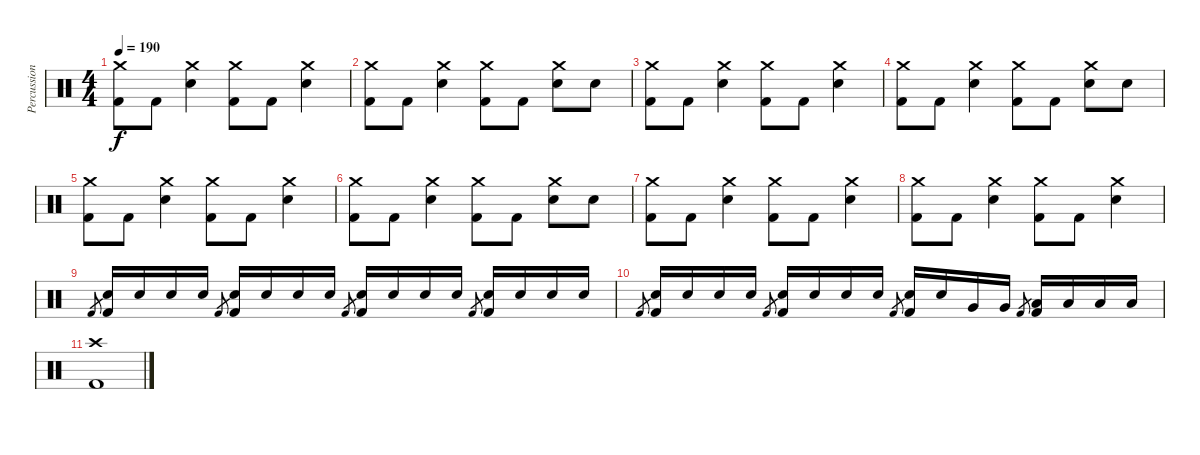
\track ("Percussion" "Percussion") {instrument percussion}
\staff {score}
\articulation defaults
\ts (4 4)
\tempo 190
\clef neutral
\ks c
("Crash medium (hit)" "Kick (hit) 2").8{dy f} "Kick (hit) 2".8 ("Crash medium (hit)" "Snare (hit) 2").4 ("Crash medium (hit)" "Kick (hit) 2").8 "Kick (hit) 2".8 ("Crash medium (hit)" "Snare (hit) 2").4 |
("Crash medium (hit)" "Kick (hit) 2").8 "Kick (hit) 2".8 ("Crash medium (hit)" "Snare (hit) 2").4 ("Crash medium (hit)" "Kick (hit) 2").8 "Kick (hit) 2".8 ("Crash medium (hit)" "Snare (hit) 2").8 "Snare (hit) 2".8 |
("Crash medium (hit)" "Kick (hit) 2").8 "Kick (hit) 2".8 ("Crash medium (hit)" "Snare (hit) 2").4 ("Crash medium (hit)" "Kick (hit) 2").8 "Kick (hit) 2".8 ("Crash medium (hit)" "Snare (hit) 2").4 |
("Crash medium (hit)" "Kick (hit) 2").8 "Kick (hit) 2".8 ("Crash medium (hit)" "Snare (hit) 2").4 ("Crash medium (hit)" "Kick (hit) 2").8 "Kick (hit) 2".8 ("Crash medium (hit)" "Snare (hit) 2").8 "Snare (hit) 2".8 |
("Crash medium (hit)" "Kick (hit) 2").8 "Kick (hit) 2".8 ("Crash medium (hit)" "Snare (hit) 2").4 ("Crash medium (hit)" "Kick (hit) 2").8 "Kick (hit) 2".8 ("Crash medium (hit)" "Snare (hit) 2").4 |
("Crash medium (hit)" "Kick (hit) 2").8 "Kick (hit) 2".8 ("Crash medium (hit)" "Snare (hit) 2").4 ("Crash medium (hit)" "Kick (hit) 2").8 "Kick (hit) 2".8 ("Crash medium (hit)" "Snare (hit) 2").8 "Snare (hit) 2".8 |
("Crash medium (hit)" "Kick (hit) 2").8 "Kick (hit) 2".8 ("Crash medium (hit)" "Snare (hit) 2").4 ("Crash medium (hit)" "Kick (hit) 2").8 "Kick (hit) 2".8 ("Crash medium (hit)" "Snare (hit) 2").4 |
("Crash medium (hit)" "Kick (hit) 2").8 "Kick (hit) 2".8 ("Crash medium (hit)" "Snare (hit) 2").4 ("Crash medium (hit)" "Kick (hit) 2").8 "Kick (hit) 2".8 ("Crash medium (hit)" "Snare (hit) 2").4 |
"Kick (hit) 2".8{gr} ("Snare (hit) 2" "Kick (hit) 2").16 "Snare (hit) 2".16 "Snare (hit) 2".16 "Snare (hit) 2".16 "Kick (hit) 2".8{gr} ("Snare (hit) 2" "Kick (hit) 2").16 "Snare (hit) 2".16 "Snare (hit) 2".16 "Snare (hit) 2".16 "Kick (hit) 2".8{gr} ("Snare (hit) 2" "Kick (hit) 2").16 "Snare (hit) 2".16 "Snare (hit) 2".16 "Snare (hit) 2".16 "Kick (hit) 2".8{gr} ("Snare (hit) 2" "Kick (hit) 2").16 "Snare (hit) 2".16 "Snare (hit) 2".16 "Snare (hit) 2".16 |
"Kick (hit) 2".8{gr} ("Snare (hit) 2" "Kick (hit) 2").16 "Snare (hit) 2".16 "Snare (hit) 2".16 "Snare (hit) 2".16 "Kick (hit) 2".8{gr} ("Snare (hit) 2" "Kick (hit) 2").16 "Snare (hit) 2".16 "Snare (hit) 2".16 "Snare (hit) 2".16 "Kick (hit) 2".8{gr} ("Snare (hit) 2" "Kick (hit) 2").16 "Snare (hit) 2".16 "Very Low Tom (hit)".16 "Very Low Tom (hit)".16 "Kick (hit) 2".8{gr} ("Low Tom (hit)" "Kick (hit) 2").16 "Low Tom (hit)".16 "Low Tom (hit)".16 "Low Tom (hit)".16 |
("Crash high (hit)" "Kick (hit) 2").1
